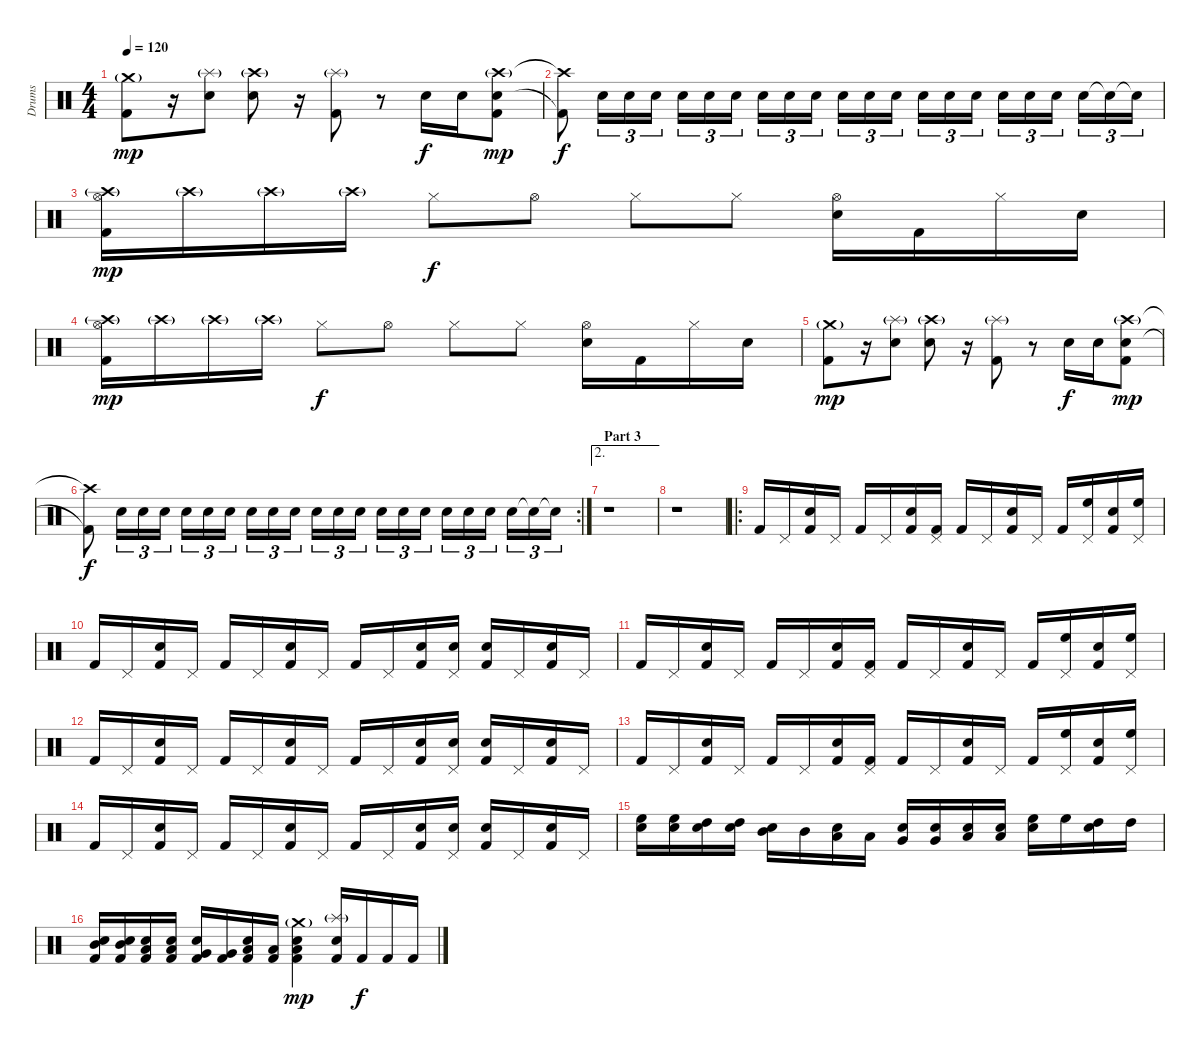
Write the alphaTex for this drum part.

\track ("Drums" "Drums") {instrument percussion}
\staff {score}
\articulation defaults
\ts (4 4)
\tempo 120
\clef neutral
\ks c
("Crash medium (hit)"{g} "Kick (hit) 2").8{dy mp} r.16 ("Splash (hit)"{g} "Electric Snare (hit)").8 ("Crash high (hit)"{g} "Electric Snare (hit)").8 r.16 ("Splash (hit)"{g} "Kick (hit) 2").8 r.8 "Electric Snare (hit)".16{dy f} "Electric Snare (hit)".16 ("Crash high (hit)"{g} "Electric Snare (hit)" "Kick (hit) 2").8{dy mp} |
("Crash high (hit)"{t} "Kick (hit) 2"{t}).8{dy f} "Electric Snare (hit)".16{tu (3 2)} "Electric Snare (hit)".16{tu (3 2)} "Electric Snare (hit)".16{tu (3 2)} "Electric Snare (hit)".16{tu (3 2)} "Electric Snare (hit)".16{tu (3 2)} "Electric Snare (hit)".16{tu (3 2)} "Electric Snare (hit)".16{tu (3 2)} "Electric Snare (hit)".16{tu (3 2)} "Electric Snare (hit)".16{tu (3 2)} "Electric Snare (hit)".16{tu (3 2)} "Electric Snare (hit)".16{tu (3 2)} "Electric Snare (hit)".16{tu (3 2)} "Electric Snare (hit)".16{tu (3 2)} "Electric Snare (hit)".16{tu (3 2)} "Electric Snare (hit)".16{tu (3 2)} "Electric Snare (hit)".16{tu (3 2)} "Electric Snare (hit)".16{tu (3 2)} "Electric Snare (hit)".16{tu (3 2)} "Electric Snare (hit)".16{tu (3 2)} "Electric Snare (hit)"{t}.16{tu (3 2)} "Electric Snare (hit)"{t}.16{tu (3 2)} |
("Crash high (hit)"{g} "Hi-Hat (open)" "Kick (hit) 2").16{dy mp} "Crash high (hit)"{g}.16 "Crash high (hit)"{g}.16 "Crash high (hit)"{g}.16 "Hi-Hat (closed)".8{dy f} "Hi-Hat (open)".8 "Hi-Hat (closed)".8 "Hi-Hat (closed)".8 ("Hi-Hat (open)" "Electric Snare (hit)").16 "Kick (hit) 2".16 "Hi-Hat (closed)".16 "Electric Snare (hit)".16 |
("Crash high (hit)"{g} "Hi-Hat (open)" "Kick (hit) 2").16{dy mp} "Crash high (hit)"{g}.16 "Crash high (hit)"{g}.16 "Crash high (hit)"{g}.16 "Hi-Hat (closed)".8{dy f} "Hi-Hat (open)".8 "Hi-Hat (closed)".8 "Hi-Hat (closed)".8 ("Hi-Hat (open)" "Electric Snare (hit)").16 "Kick (hit) 2".16 "Hi-Hat (closed)".16 "Electric Snare (hit)".16 |
("Crash medium (hit)"{g} "Kick (hit) 2").8{dy mp} r.16 ("Splash (hit)"{g} "Electric Snare (hit)").8 ("Crash high (hit)"{g} "Electric Snare (hit)").8 r.16 ("Splash (hit)"{g} "Kick (hit) 2").8 r.8 "Electric Snare (hit)".16{dy f} "Electric Snare (hit)".16 ("Crash high (hit)"{g} "Electric Snare (hit)" "Kick (hit) 2").8{dy mp} |
\rc 2
("Crash high (hit)"{t} "Kick (hit) 2"{t}).8{dy f} "Electric Snare (hit)".16{tu (3 2)} "Electric Snare (hit)".16{tu (3 2)} "Electric Snare (hit)".16{tu (3 2)} "Electric Snare (hit)".16{tu (3 2)} "Electric Snare (hit)".16{tu (3 2)} "Electric Snare (hit)".16{tu (3 2)} "Electric Snare (hit)".16{tu (3 2)} "Electric Snare (hit)".16{tu (3 2)} "Electric Snare (hit)".16{tu (3 2)} "Electric Snare (hit)".16{tu (3 2)} "Electric Snare (hit)".16{tu (3 2)} "Electric Snare (hit)".16{tu (3 2)} "Electric Snare (hit)".16{tu (3 2)} "Electric Snare (hit)".16{tu (3 2)} "Electric Snare (hit)".16{tu (3 2)} "Electric Snare (hit)".16{tu (3 2)} "Electric Snare (hit)".16{tu (3 2)} "Electric Snare (hit)".16{tu (3 2)} "Electric Snare (hit)".16{tu (3 2)} "Electric Snare (hit)"{t}.16{tu (3 2)} "Electric Snare (hit)"{t}.16{tu (3 2)} |
\ae 2
\section ("" "Part 3")
r.1 |
r.1 |
\ro "Kick (hit) 2".16 "Pedal Hi-Hat (hit)".16
("Electric Snare (hit)" "Kick (hit) 2").16 "Pedal Hi-Hat (hit)".16 "Kick (hit) 2".16 "Pedal Hi-Hat (hit)".16 ("Electric Snare (hit)" "Kick (hit) 2").16 ("Pedal Hi-Hat (hit)" "Kick (hit) 2").16 "Kick (hit) 2".16 "Pedal Hi-Hat (hit)".16 ("Electric Snare (hit)" "Kick (hit) 2").16 "Pedal Hi-Hat (hit)".16 "Kick (hit) 2".16 ("Pedal Hi-Hat (hit)" "High Floor Tom (hit)").16 ("Electric Snare (hit)" "Kick (hit) 2").16 ("Pedal Hi-Hat (hit)" "High Floor Tom (hit)").16 |
"Kick (hit) 2".16 "Pedal Hi-Hat (hit)".16 ("Electric Snare (hit)" "Kick (hit) 2").16 "Pedal Hi-Hat (hit)".16 "Kick (hit) 2".16 "Pedal Hi-Hat (hit)".16 ("Electric Snare (hit)" "Kick (hit) 2").16 "Pedal Hi-Hat (hit)".16 "Kick (hit) 2".16 "Pedal Hi-Hat (hit)".16 ("Electric Snare (hit)" "Kick (hit) 2").16 ("Pedal Hi-Hat (hit)" "Electric Snare (hit)").16 ("Electric Snare (hit)" "Kick (hit) 2").16 "Pedal Hi-Hat (hit)".16 ("Electric Snare (hit)" "Kick (hit) 2").16 "Pedal Hi-Hat (hit)".16 |
"Kick (hit) 2".16 "Pedal Hi-Hat (hit)".16 ("Electric Snare (hit)" "Kick (hit) 2").16 "Pedal Hi-Hat (hit)".16 "Kick (hit) 2".16 "Pedal Hi-Hat (hit)".16 ("Electric Snare (hit)" "Kick (hit) 2").16 ("Pedal Hi-Hat (hit)" "Kick (hit) 2").16 "Kick (hit) 2".16 "Pedal Hi-Hat (hit)".16 ("Electric Snare (hit)" "Kick (hit) 2").16 "Pedal Hi-Hat (hit)".16 "Kick (hit) 2".16 ("Pedal Hi-Hat (hit)" "High Floor Tom (hit)").16 ("Electric Snare (hit)" "Kick (hit) 2").16 ("Pedal Hi-Hat (hit)" "High Floor Tom (hit)").16 |
"Kick (hit) 2".16 "Pedal Hi-Hat (hit)".16 ("Electric Snare (hit)" "Kick (hit) 2").16 "Pedal Hi-Hat (hit)".16 "Kick (hit) 2".16 "Pedal Hi-Hat (hit)".16 ("Electric Snare (hit)" "Kick (hit) 2").16 "Pedal Hi-Hat (hit)".16 "Kick (hit) 2".16 "Pedal Hi-Hat (hit)".16 ("Electric Snare (hit)" "Kick (hit) 2").16 ("Pedal Hi-Hat (hit)" "Electric Snare (hit)").16 ("Electric Snare (hit)" "Kick (hit) 2").16 "Pedal Hi-Hat (hit)".16 ("Electric Snare (hit)" "Kick (hit) 2").16 "Pedal Hi-Hat (hit)".16 |
"Kick (hit) 2".16 "Pedal Hi-Hat (hit)".16 ("Electric Snare (hit)" "Kick (hit) 2").16 "Pedal Hi-Hat (hit)".16 "Kick (hit) 2".16 "Pedal Hi-Hat (hit)".16 ("Electric Snare (hit)" "Kick (hit) 2").16 ("Pedal Hi-Hat (hit)" "Kick (hit) 2").16 "Kick (hit) 2".16 "Pedal Hi-Hat (hit)".16 ("Electric Snare (hit)" "Kick (hit) 2").16 "Pedal Hi-Hat (hit)".16 "Kick (hit) 2".16 ("Pedal Hi-Hat (hit)" "High Floor Tom (hit)").16 ("Electric Snare (hit)" "Kick (hit) 2").16 ("Pedal Hi-Hat (hit)" "High Floor Tom (hit)").16 |
"Kick (hit) 2".16 "Pedal Hi-Hat (hit)".16 ("Electric Snare (hit)" "Kick (hit) 2").16 "Pedal Hi-Hat (hit)".16 "Kick (hit) 2".16 "Pedal Hi-Hat (hit)".16 ("Electric Snare (hit)" "Kick (hit) 2").16 "Pedal Hi-Hat (hit)".16 "Kick (hit) 2".16 "Pedal Hi-Hat (hit)".16 ("Electric Snare (hit)" "Kick (hit) 2").16 ("Pedal Hi-Hat (hit)" "Electric Snare (hit)").16 ("Electric Snare (hit)" "Kick (hit) 2").16 "Pedal Hi-Hat (hit)".16 ("Electric Snare (hit)" "Kick (hit) 2").16 "Pedal Hi-Hat (hit)".16 |
("Electric Snare (hit)" "High Floor Tom (hit)").16 ("Electric Snare (hit)" "High Floor Tom (hit)").16 ("Electric Snare (hit)" "High Tom (hit)").16 ("Electric Snare (hit)" "High Tom (hit)").16 ("Electric Snare (hit)" "Mid Tom (hit)").16 "Mid Tom (hit)".16 ("Electric Snare (hit)" "Low Tom (hit)").16 "Low Tom (hit)".16 ("Electric Snare (hit)" "Very Low Tom (hit)").16 ("Electric Snare (hit)" "Very Low Tom (hit)").16 ("Electric Snare (hit)" "Low Floor Tom (hit)").16 ("Electric Snare (hit)" "Low Floor Tom (hit)").16 ("Electric Snare (hit)" "High Floor Tom (hit)").16 "High Floor Tom (hit)".16 ("Electric Snare (hit)" "High Tom (hit)").16 "High Tom (hit)".16 |
("Electric Snare (hit)" "Mid Tom (hit)" "Kick (hit) 2").16 ("Electric Snare (hit)" "Mid Tom (hit)" "Kick (hit) 2").16 ("Electric Snare (hit)" "Low Tom (hit)" "Kick (hit) 2").16 ("Electric Snare (hit)" "Low Tom (hit)" "Kick (hit) 2").16 ("Electric Snare (hit)" "Very Low Tom (hit)" "Kick (hit) 2").16 ("Very Low Tom (hit)" "Kick (hit) 2").16 ("Electric Snare (hit)" "Low Floor Tom (hit)" "Kick (hit) 2").16 ("Low Floor Tom (hit)" "Kick (hit) 2").16 ("Crash medium (hit)"{g} "Electric Snare (hit)" "Low Tom (hit)" "Kick (hit) 2").4{dy mp} ("Splash (hit)"{g} "Electric Snare (hit)" "Kick (hit) 2").16 "Kick (hit) 2".16{dy f} "Kick (hit) 2".16 "Kick (hit) 2".16
